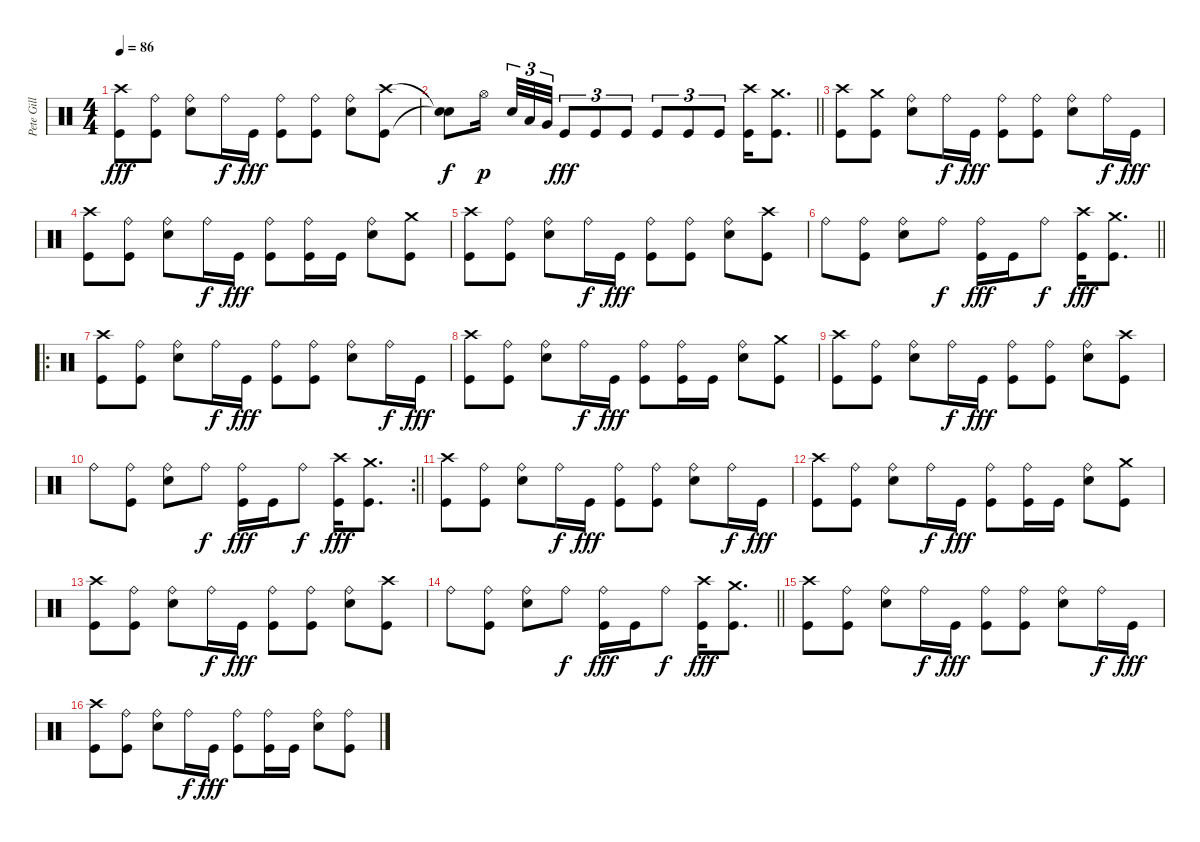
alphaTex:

\track ("Pete Gill" "Pete Gill") {instrument percussion}
\staff {score}
\articulation defaults
\ts (4 4)
\tempo 86
\clef neutral
\ks c
("Crash high (hit)" "Kick (hit)").8{dy fff} ("Ride (bell)" "Kick (hit)").8 ("Ride (bell)" "Electric Snare (hit)").8 "Ride (bell)".16{dy f} "Kick (hit)".16{dy fff} ("Ride (bell)" "Kick (hit)").8 ("Ride (bell)" "Kick (hit)").8 ("Ride (bell)" "Electric Snare (hit)").8 ("Crash high (hit)" "Kick (hit)").8 |
\barLineRight lightlight
("Snare (hit)"{t} "Snare (hit)"{t}).8{dy f} "Hi-Hat (open)".16{dy p beam splitsecondary} "Electric Snare (hit)".32{tu (3 2)} "Low Tom (hit)".32{tu (3 2)} "Very Low Tom (hit)".32{tu (3 2)} "Kick (hit)".8{tu (3 2) dy fff} "Kick (hit)".8{tu (3 2)} "Kick (hit)".8{tu (3 2)} "Kick (hit)".8{tu (3 2)} "Kick (hit)".8{tu (3 2)} "Kick (hit)".8{tu (3 2)} ("Crash high (hit)" "Kick (hit)").16 ("Crash medium (hit)" "Kick (hit)").8{d} |
("Crash high (hit)" "Kick (hit)").8 ("Crash medium (hit)" "Kick (hit)").8 ("Ride (bell)" "Electric Snare (hit)").8 "Ride (bell)".16{dy f} "Kick (hit)".16{dy fff} ("Ride (bell)" "Kick (hit)").8 ("Ride (bell)" "Kick (hit)").8 ("Ride (bell)" "Electric Snare (hit)").8 "Ride (bell)".16{dy f} "Kick (hit)".16{dy fff} |
("Crash high (hit)" "Kick (hit)").8 ("Ride (bell)" "Kick (hit)").8 ("Ride (bell)" "Electric Snare (hit)").8 "Ride (bell)".16{dy f} "Kick (hit)".16{dy fff} ("Ride (bell)" "Kick (hit)").8 ("Ride (bell)" "Kick (hit)").16 "Kick (hit)".16 ("Ride (bell)" "Electric Snare (hit)").8 ("Crash medium (hit)" "Kick (hit)").8 |
("Crash high (hit)" "Kick (hit)").8 ("Ride (bell)" "Kick (hit)").8 ("Ride (bell)" "Electric Snare (hit)").8 "Ride (bell)".16{dy f} "Kick (hit)".16{dy fff} ("Ride (bell)" "Kick (hit)").8 ("Ride (bell)" "Kick (hit)").8 ("Ride (bell)" "Electric Snare (hit)").8 ("Crash high (hit)" "Kick (hit)").8 |
\barLineRight lightlight "Ride (bell)".8
("Ride (bell)" "Kick (hit)").8 ("Ride (bell)" "Electric Snare (hit)").8 "Ride (bell)".8{dy f} ("Ride (bell)" "Kick (hit)").16{dy fff} "Kick (hit)".16 "Ride (bell)".8{dy f} ("Crash high (hit)" "Kick (hit)").16{dy fff} ("Crash medium (hit)" "Kick (hit)").8{d} |
\ro
("Crash high (hit)" "Kick (hit)").8 ("Ride (bell)" "Kick (hit)").8 ("Ride (bell)" "Electric Snare (hit)").8 "Ride (bell)".16{dy f} "Kick (hit)".16{dy fff} ("Ride (bell)" "Kick (hit)").8 ("Ride (bell)" "Kick (hit)").8 ("Ride (bell)" "Electric Snare (hit)").8 "Ride (bell)".16{dy f} "Kick (hit)".16{dy fff} |
("Crash high (hit)" "Kick (hit)").8 ("Ride (bell)" "Kick (hit)").8 ("Ride (bell)" "Electric Snare (hit)").8 "Ride (bell)".16{dy f} "Kick (hit)".16{dy fff} ("Ride (bell)" "Kick (hit)").8 ("Ride (bell)" "Kick (hit)").16 "Kick (hit)".16 ("Ride (bell)" "Electric Snare (hit)").8 ("Crash medium (hit)" "Kick (hit)").8 |
("Crash high (hit)" "Kick (hit)").8 ("Ride (bell)" "Kick (hit)").8 ("Ride (bell)" "Electric Snare (hit)").8 "Ride (bell)".16{dy f} "Kick (hit)".16{dy fff} ("Ride (bell)" "Kick (hit)").8 ("Ride (bell)" "Kick (hit)").8 ("Ride (bell)" "Electric Snare (hit)").8 ("Crash high (hit)" "Kick (hit)").8 |
\rc 2
\barLineRight lightlight "Ride (bell)".8
("Ride (bell)" "Kick (hit)").8 ("Ride (bell)" "Electric Snare (hit)").8 "Ride (bell)".8{dy f} ("Ride (bell)" "Kick (hit)").16{dy fff} "Kick (hit)".16 "Ride (bell)".8{dy f} ("Crash high (hit)" "Kick (hit)").16{dy fff} ("Crash medium (hit)" "Kick (hit)").8{d} |
("Crash high (hit)" "Kick (hit)").8{volume 13} ("Ride (bell)" "Kick (hit)").8 ("Ride (bell)" "Electric Snare (hit)").8 "Ride (bell)".16{dy f} "Kick (hit)".16{dy fff} ("Ride (bell)" "Kick (hit)").8 ("Ride (bell)" "Kick (hit)").8 ("Ride (bell)" "Electric Snare (hit)").8 "Ride (bell)".16{dy f} "Kick (hit)".16{dy fff} |
("Crash high (hit)" "Kick (hit)").8 ("Ride (bell)" "Kick (hit)").8 ("Ride (bell)" "Electric Snare (hit)").8 "Ride (bell)".16{dy f} "Kick (hit)".16{dy fff} ("Ride (bell)" "Kick (hit)").8 ("Ride (bell)" "Kick (hit)").16 "Kick (hit)".16 ("Ride (bell)" "Electric Snare (hit)").8 ("Crash medium (hit)" "Kick (hit)").8 |
("Crash high (hit)" "Kick (hit)").8 ("Ride (bell)" "Kick (hit)").8 ("Ride (bell)" "Electric Snare (hit)").8 "Ride (bell)".16{dy f} "Kick (hit)".16{dy fff} ("Ride (bell)" "Kick (hit)").8 ("Ride (bell)" "Kick (hit)").8 ("Ride (bell)" "Electric Snare (hit)").8 ("Crash high (hit)" "Kick (hit)").8 |
\barLineRight lightlight "Ride (bell)".8
("Ride (bell)" "Kick (hit)").8 ("Ride (bell)" "Electric Snare (hit)").8 "Ride (bell)".8{dy f} ("Ride (bell)" "Kick (hit)").16{dy fff} "Kick (hit)".16 "Ride (bell)".8{dy f} ("Crash high (hit)" "Kick (hit)").16{dy fff} ("Crash medium (hit)" "Kick (hit)").8{d} |
("Crash high (hit)" "Kick (hit)").8{volume 9} ("Ride (bell)" "Kick (hit)").8 ("Ride (bell)" "Electric Snare (hit)").8 "Ride (bell)".16{dy f} "Kick (hit)".16{dy fff} ("Ride (bell)" "Kick (hit)").8 ("Ride (bell)" "Kick (hit)").8 ("Ride (bell)" "Electric Snare (hit)").8 "Ride (bell)".16{dy f} "Kick (hit)".16{dy fff} |
("Crash high (hit)" "Kick (hit)").8 ("Ride (bell)" "Kick (hit)").8 ("Ride (bell)" "Electric Snare (hit)").8 "Ride (bell)".16{dy f} "Kick (hit)".16{dy fff} ("Ride (bell)" "Kick (hit)").8 ("Ride (bell)" "Kick (hit)").16 "Kick (hit)".16 ("Ride (bell)" "Electric Snare (hit)").8 ("Ride (bell)" "Kick (hit)").8
